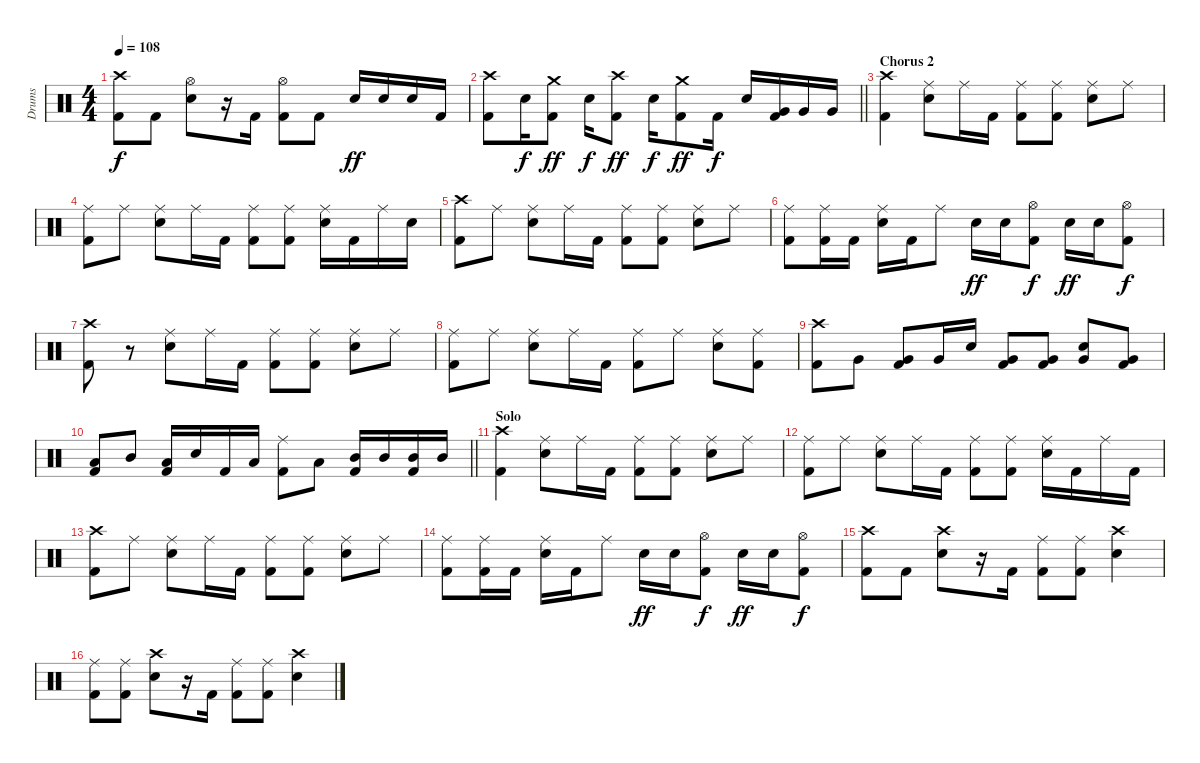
\track ("Drums" "Drums") {instrument percussion}
\staff {score}
\articulation defaults
\ts (4 4)
\tempo 108
\clef neutral
\ks c
("Crash high (hit)" "Kick (hit) 2").8{dy f} "Kick (hit) 2".8 ("Hi-Hat (open)" "Snare (hit) 2").8 r.16 "Kick (hit) 2".16 ("Hi-Hat (open)" "Kick (hit) 2").8 "Kick (hit) 2".8 "Snare (hit) 2".16{dy ff} "Snare (hit) 2".16 "Snare (hit) 2".16 "Kick (hit) 2".16 |
\barLineRight lightlight
("Crash high (hit)" "Kick (hit) 2").8 "Snare (hit) 2".16{dy f} ("Crash medium (hit)" "Kick (hit) 2").8{dy ff} "Snare (hit) 2".16{dy f} ("Crash high (hit)" "Kick (hit) 2").8{dy ff} "Snare (hit) 2".16{dy f} ("Crash medium (hit)" "Kick (hit) 2").8{dy ff} "Kick (hit) 2".16{dy f} "Snare (hit) 2".16 ("Very Low Tom (hit)" "Kick (hit) 2").16 "Very Low Tom (hit)".16 "Very Low Tom (hit)".16 |
\section ("" "Chorus 2")
("Crash high (hit)" "Kick (hit) 2").4 ("Ride (middle)" "Snare (hit) 2").8 "Ride (middle)".16 "Kick (hit) 2".16 ("Ride (middle)" "Kick (hit) 2").8 ("Ride (middle)" "Kick (hit) 2").8 ("Ride (middle)" "Snare (hit) 2").8 "Ride (middle)".8 |
("Ride (middle)" "Kick (hit) 2").8 "Ride (middle)".8 ("Ride (middle)" "Snare (hit) 2").8 "Ride (middle)".16 "Kick (hit) 2".16 ("Ride (middle)" "Kick (hit) 2").8 ("Ride (middle)" "Kick (hit) 2").8 ("Ride (middle)" "Snare (hit) 2").16 "Kick (hit) 2".16 "Ride (middle)".16 "Snare (hit) 2".16 |
("Crash high (hit)" "Kick (hit) 2").8 "Ride (middle)".8 ("Ride (middle)" "Snare (hit) 2").8 "Ride (middle)".16 "Kick (hit) 2".16 ("Ride (middle)" "Kick (hit) 2").8 ("Ride (middle)" "Kick (hit) 2").8 ("Ride (middle)" "Snare (hit) 2").8 "Ride (middle)".8 |
("Ride (middle)" "Kick (hit) 2").8 ("Ride (middle)" "Kick (hit) 2").16 "Kick (hit) 2".16 ("Ride (middle)" "Snare (hit) 2").16 "Kick (hit) 2".16 "Ride (middle)".8 "Snare (hit) 2".16{dy ff} "Snare (hit) 2".16 ("Hi-Hat (open)" "Kick (hit) 2").8{dy f} "Snare (hit) 2".16{dy ff} "Snare (hit) 2".16 ("Hi-Hat (open)" "Kick (hit) 2").8{dy f} |
("Crash high (hit)" "Kick (hit) 2").8 r.8 ("Ride (middle)" "Snare (hit) 2").8 "Ride (middle)".16 "Kick (hit) 2".16 ("Ride (middle)" "Kick (hit) 2").8 ("Ride (middle)" "Kick (hit) 2").8 ("Ride (middle)" "Snare (hit) 2").8 "Ride (middle)".8 |
("Ride (middle)" "Kick (hit) 2").8 "Ride (middle)".8 ("Ride (middle)" "Snare (hit) 2").8 "Ride (middle)".16 "Kick (hit) 2".16 ("Ride (middle)" "Kick (hit) 2").8 "Ride (middle)".8 ("Ride (middle)" "Snare (hit) 2").8 ("Ride (middle)" "Kick (hit) 2").8 |
("Crash high (hit)" "Kick (hit) 2").8 "Very Low Tom (hit)".8 ("Very Low Tom (hit)" "Kick (hit) 2").8 "Very Low Tom (hit)".16 "Snare (hit) 2".16 ("Very Low Tom (hit)" "Kick (hit) 2").8 ("Very Low Tom (hit)" "Kick (hit) 2").8 ("Very Low Tom (hit)" "Snare (hit) 2").8 ("Very Low Tom (hit)" "Kick (hit) 2").8 |
\barLineRight lightlight
("Low Tom (hit)" "Kick (hit) 2").8 "Mid Tom (hit)".8 ("Low Tom (hit)" "Kick (hit) 2").16 "Snare (hit) 2".16 "Kick (hit) 2".16 "Low Tom (hit)".16 ("Ride (middle)" "Kick (hit) 2").8 "Low Tom (hit)".8 ("Mid Tom (hit)" "Kick (hit) 2").16 "Mid Tom (hit)".16 ("Mid Tom (hit)" "Kick (hit) 2").16 "Mid Tom (hit)".16 |
\section ("" "Solo")
("Crash high (hit)" "Kick (hit) 2").4 ("Ride (middle)" "Snare (hit) 2").8 "Ride (middle)".16 "Kick (hit) 2".16 ("Ride (middle)" "Kick (hit) 2").8 ("Ride (middle)" "Kick (hit) 2").8 ("Ride (middle)" "Snare (hit) 2").8 "Ride (middle)".8 |
("Ride (middle)" "Kick (hit) 2").8 "Ride (middle)".8 ("Ride (middle)" "Snare (hit) 2").8 "Ride (middle)".16 "Kick (hit) 2".16 ("Ride (middle)" "Kick (hit) 2").8 ("Ride (middle)" "Kick (hit) 2").8 ("Ride (middle)" "Snare (hit) 2").16 "Kick (hit) 2".16 "Ride (middle)".16 "Kick (hit) 2".16 |
("Crash high (hit)" "Kick (hit) 2").8 "Ride (middle)".8 ("Ride (middle)" "Snare (hit) 2").8 "Ride (middle)".16 "Kick (hit) 2".16 ("Ride (middle)" "Kick (hit) 2").8 ("Ride (middle)" "Kick (hit) 2").8 ("Ride (middle)" "Snare (hit) 2").8 "Ride (middle)".8 |
("Ride (middle)" "Kick (hit) 2").8 ("Ride (middle)" "Kick (hit) 2").16 "Kick (hit) 2".16 ("Ride (middle)" "Snare (hit) 2").16 "Kick (hit) 2".16 "Ride (middle)".8 "Snare (hit) 2".16{dy ff} "Snare (hit) 2".16 ("Hi-Hat (open)" "Kick (hit) 2").8{dy f} "Snare (hit) 2".16{dy ff} "Snare (hit) 2".16 ("Hi-Hat (open)" "Kick (hit) 2").8{dy f} |
("Crash high (hit)" "Kick (hit) 2").8 "Kick (hit) 2".8 ("Crash high (hit)" "Snare (hit) 2").8 r.16 "Kick (hit) 2".16 ("Ride (middle)" "Kick (hit) 2").8 ("Ride (middle)" "Kick (hit) 2").8 ("Crash high (hit)" "Snare (hit) 2").4 |
("Ride (middle)" "Kick (hit) 2").8 ("Ride (middle)" "Kick (hit) 2").8 ("Crash high (hit)" "Snare (hit) 2").8 r.16 "Kick (hit) 2".16 ("Ride (middle)" "Kick (hit) 2").8 ("Ride (middle)" "Kick (hit) 2").8 ("Crash high (hit)" "Snare (hit) 2").4
